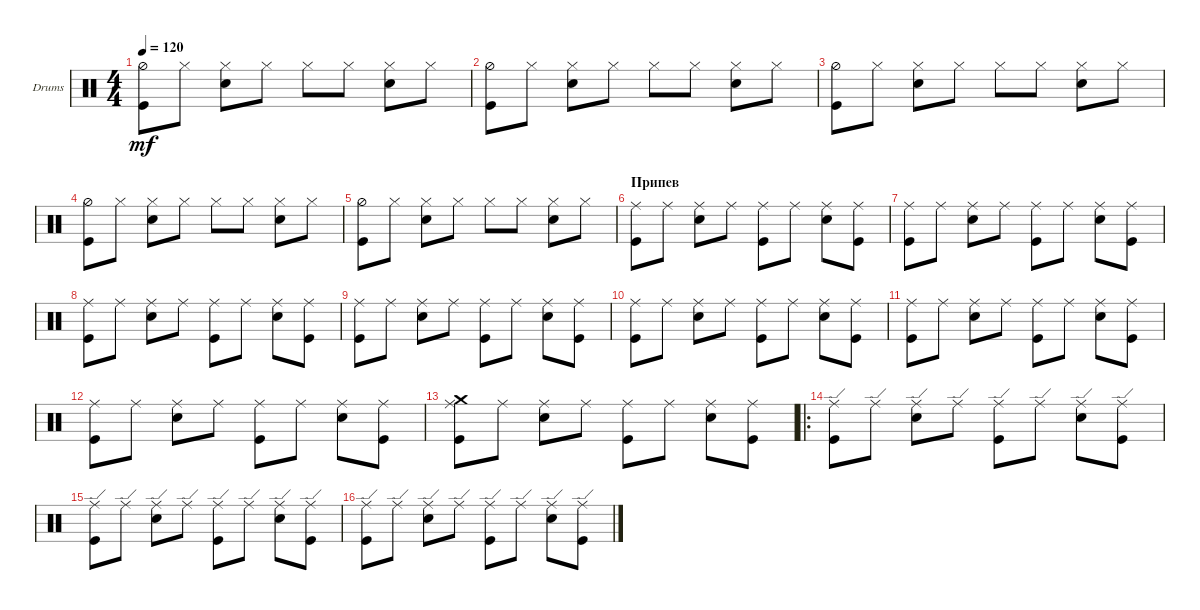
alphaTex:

\defaultSystemsLayout 4
\bracketExtendMode groupsimilarinstruments
\firstSystemTrackNameOrientation horizontal
\otherSystemsTrackNameOrientation horizontal
\track ("Drumkit" "Drums") {instrument percussion}
\staff {score}
\articulation defaults
\ts (4 4)
\tempo 120
\clef neutral
\scale
0.333333
\ks c
("Hi-Hat (half)" "Kick (hit)").8{dy mf} "Hi-Hat (closed)".8 ("Hi-Hat (closed)" "Snare (hit) 2").8 "Hi-Hat (closed)".8 "Hi-Hat (closed)".8 "Hi-Hat (closed)".8 ("Hi-Hat (closed)" "Snare (hit) 2").8 "Hi-Hat (closed)".8 |
\scale
0.333333 ("Hi-Hat (half)" "Kick (hit)").8 "Hi-Hat (closed)".8 ("Hi-Hat (closed)" "Snare (hit) 2").8 "Hi-Hat (closed)".8 "Hi-Hat (closed)".8 "Hi-Hat (closed)".8 ("Hi-Hat (closed)" "Snare (hit) 2").8 "Hi-Hat (closed)".8 |
\scale
0.333333 ("Hi-Hat (half)" "Kick (hit)").8 "Hi-Hat (closed)".8 ("Hi-Hat (closed)" "Snare (hit) 2").8 "Hi-Hat (closed)".8 "Hi-Hat (closed)".8 "Hi-Hat (closed)".8 ("Hi-Hat (closed)" "Snare (hit) 2").8 "Hi-Hat (closed)".8 |
\scale
0.333333 ("Hi-Hat (half)" "Kick (hit)").8 "Hi-Hat (closed)".8 ("Hi-Hat (closed)" "Snare (hit) 2").8 "Hi-Hat (closed)".8 "Hi-Hat (closed)".8 "Hi-Hat (closed)".8 ("Hi-Hat (closed)" "Snare (hit) 2").8 "Hi-Hat (closed)".8 |
\scale
0.333333 ("Hi-Hat (half)" "Kick (hit)").8 "Hi-Hat (closed)".8 ("Hi-Hat (closed)" "Snare (hit) 2").8 "Hi-Hat (closed)".8 "Hi-Hat (closed)".8 "Hi-Hat (closed)".8 ("Hi-Hat (closed)" "Snare (hit) 2").8 "Hi-Hat (closed)".8 |
\section ("" "Припев")
\scale
0.333333 ("Kick (hit)" "Ride (middle)").8 "Ride (middle)".8 ("Snare (hit) 2" "Ride (middle)").8 "Ride (middle)".8 ("Ride (middle)" "Kick (hit)").8 "Ride (middle)".8 ("Snare (hit) 2" "Ride (middle)").8 ("Ride (middle)" "Kick (hit)").8 |
\scale
0.333333 ("Kick (hit)" "Ride (middle)").8 "Ride (middle)".8 ("Snare (hit) 2" "Ride (middle)").8 "Ride (middle)".8 ("Ride (middle)" "Kick (hit)").8 "Ride (middle)".8 ("Snare (hit) 2" "Ride (middle)").8 ("Ride (middle)" "Kick (hit)").8 |
\scale
0.333333 ("Kick (hit)" "Ride (middle)").8 "Ride (middle)".8 ("Snare (hit) 2" "Ride (middle)").8 "Ride (middle)".8 ("Ride (middle)" "Kick (hit)").8 "Ride (middle)".8 ("Snare (hit) 2" "Ride (middle)").8 ("Ride (middle)" "Kick (hit)").8 |
\scale
0.333333 ("Kick (hit)" "Ride (middle)").8 "Ride (middle)".8 ("Snare (hit) 2" "Ride (middle)").8 "Ride (middle)".8 ("Ride (middle)" "Kick (hit)").8 "Ride (middle)".8 ("Snare (hit) 2" "Ride (middle)").8 ("Ride (middle)" "Kick (hit)").8 |
\scale
0.333333 ("Kick (hit)" "Ride (middle)").8 "Ride (middle)".8 ("Snare (hit) 2" "Ride (middle)").8 "Ride (middle)".8 ("Ride (middle)" "Kick (hit)").8 "Ride (middle)".8 ("Snare (hit) 2" "Ride (middle)").8 ("Ride (middle)" "Kick (hit)").8 |
\scale
0.333333 ("Kick (hit)" "Ride (middle)").8 "Ride (middle)".8 ("Snare (hit) 2" "Ride (middle)").8 "Ride (middle)".8 ("Ride (middle)" "Kick (hit)").8 "Ride (middle)".8 ("Snare (hit) 2" "Ride (middle)").8 ("Ride (middle)" "Kick (hit)").8 |
("Kick (hit)" "Ride (middle)").8 "Ride (middle)".8 ("Snare (hit) 2" "Ride (middle)").8 "Ride (middle)".8 ("Ride (middle)" "Kick (hit)").8 "Ride (middle)".8 ("Snare (hit) 2" "Ride (middle)").8 ("Ride (middle)" "Kick (hit)").8 |
("Kick (hit)" "Ride (middle)" "Crash medium (hit)").8 "Ride (middle)".8 ("Snare (hit) 2" "Ride (middle)").8 "Ride (middle)".8 ("Ride (middle)" "Kick (hit)").8 "Ride (middle)".8 ("Snare (hit) 2" "Ride (middle)").8 ("Ride (middle)" "Kick (hit)").8 |
\ro
("Kick (hit)" "Ride (edge)").8 "Ride (edge)".8 ("Snare (hit) 2" "Ride (edge)").8 "Ride (edge)".8 ("Ride (edge)" "Kick (hit)").8 "Ride (edge)".8 ("Snare (hit) 2" "Ride (edge)").8 ("Ride (edge)" "Kick (hit)").8 |
("Kick (hit)" "Ride (edge)").8 "Ride (edge)".8 ("Snare (hit) 2" "Ride (edge)").8 "Ride (edge)".8 ("Ride (edge)" "Kick (hit)").8 "Ride (edge)".8 ("Snare (hit) 2" "Ride (edge)").8 ("Ride (edge)" "Kick (hit)").8 |
("Kick (hit)" "Ride (edge)").8 "Ride (edge)".8 ("Snare (hit) 2" "Ride (edge)").8 "Ride (edge)".8 ("Ride (edge)" "Kick (hit)").8 "Ride (edge)".8 ("Snare (hit) 2" "Ride (edge)").8 ("Ride (edge)" "Kick (hit)").8
